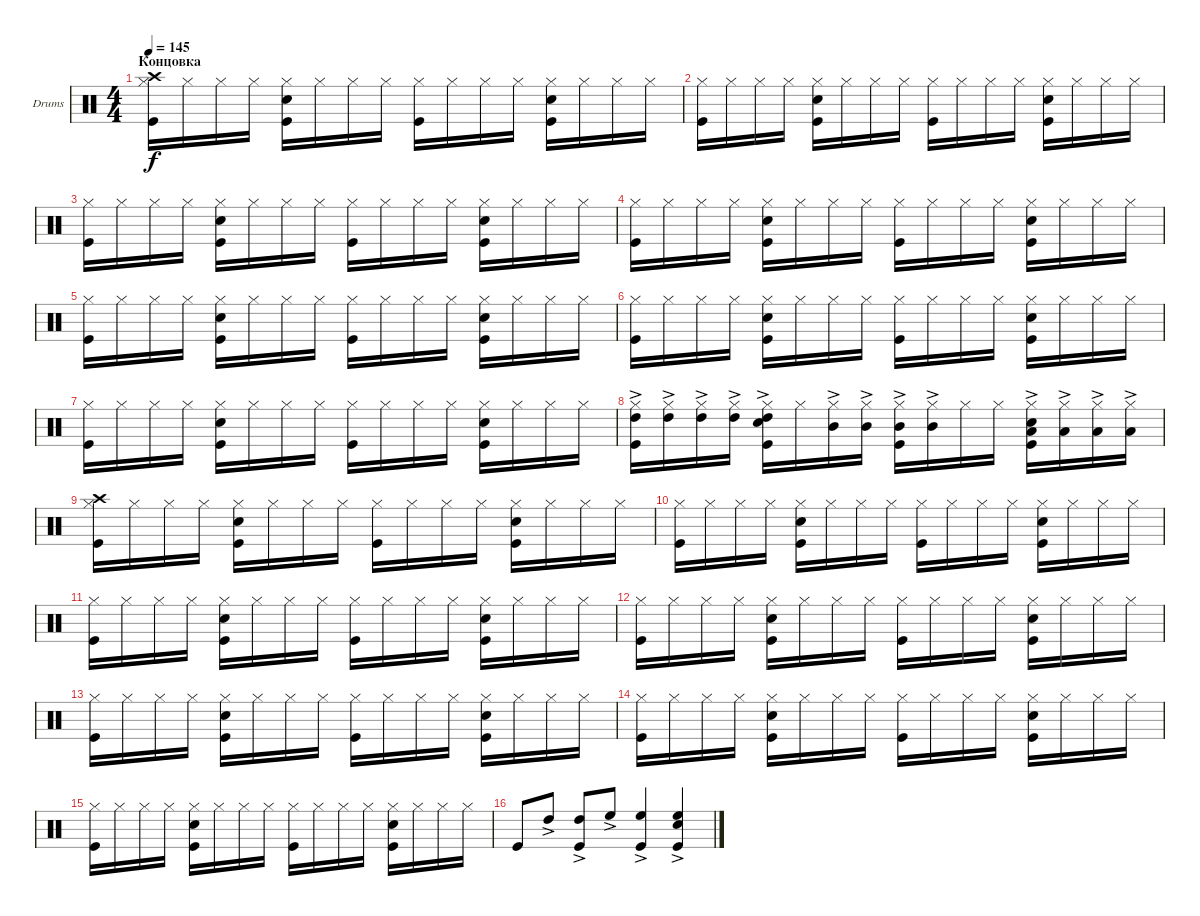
\defaultSystemsLayout 4
\bracketExtendMode groupsimilarinstruments
\firstSystemTrackNameOrientation horizontal
\otherSystemsTrackNameOrientation horizontal
\track ("Drumkit" "Drums") {instrument percussion}
\staff {score}
\articulation defaults
\ts (4 4)
\section ("" "Концовка")
\tempo 145
\clef neutral
\ks c
("Hi-Hat (closed)" "Kick (hit)" "Crash high (hit)").16{dy f} "Hi-Hat (closed)".16 "Hi-Hat (closed)".16 "Hi-Hat (closed)".16 ("Hi-Hat (closed)" "Kick (hit)" "Snare (hit) 2").16 "Hi-Hat (closed)".16 "Hi-Hat (closed)".16 "Hi-Hat (closed)".16 ("Hi-Hat (closed)" "Kick (hit)").16 "Hi-Hat (closed)".16 "Hi-Hat (closed)".16 "Hi-Hat (closed)".16 ("Hi-Hat (closed)" "Kick (hit)" "Snare (hit) 2").16 "Hi-Hat (closed)".16 "Hi-Hat (closed)".16 "Hi-Hat (closed)".16 |
("Hi-Hat (closed)" "Kick (hit)").16 "Hi-Hat (closed)".16 "Hi-Hat (closed)".16 "Hi-Hat (closed)".16 ("Hi-Hat (closed)" "Kick (hit)" "Snare (hit) 2").16 "Hi-Hat (closed)".16 "Hi-Hat (closed)".16 "Hi-Hat (closed)".16 ("Hi-Hat (closed)" "Kick (hit)").16 "Hi-Hat (closed)".16 "Hi-Hat (closed)".16 "Hi-Hat (closed)".16 ("Hi-Hat (closed)" "Kick (hit)" "Snare (hit) 2").16 "Hi-Hat (closed)".16 "Hi-Hat (closed)".16 "Hi-Hat (closed)".16 |
("Hi-Hat (closed)" "Kick (hit)").16 "Hi-Hat (closed)".16 "Hi-Hat (closed)".16 "Hi-Hat (closed)".16 ("Hi-Hat (closed)" "Kick (hit)" "Snare (hit) 2").16 "Hi-Hat (closed)".16 "Hi-Hat (closed)".16 "Hi-Hat (closed)".16 ("Hi-Hat (closed)" "Kick (hit)").16 "Hi-Hat (closed)".16 "Hi-Hat (closed)".16 "Hi-Hat (closed)".16 ("Hi-Hat (closed)" "Kick (hit)" "Snare (hit) 2").16 "Hi-Hat (closed)".16 "Hi-Hat (closed)".16 "Hi-Hat (closed)".16 |
("Hi-Hat (closed)" "Kick (hit)").16 "Hi-Hat (closed)".16 "Hi-Hat (closed)".16 "Hi-Hat (closed)".16 ("Hi-Hat (closed)" "Kick (hit)" "Snare (hit) 2").16 "Hi-Hat (closed)".16 "Hi-Hat (closed)".16 "Hi-Hat (closed)".16 ("Hi-Hat (closed)" "Kick (hit)").16 "Hi-Hat (closed)".16 "Hi-Hat (closed)".16 "Hi-Hat (closed)".16 ("Hi-Hat (closed)" "Kick (hit)" "Snare (hit) 2").16 "Hi-Hat (closed)".16 "Hi-Hat (closed)".16 "Hi-Hat (closed)".16 |
("Hi-Hat (closed)" "Kick (hit)").16 "Hi-Hat (closed)".16 "Hi-Hat (closed)".16 "Hi-Hat (closed)".16 ("Hi-Hat (closed)" "Kick (hit)" "Snare (hit) 2").16 "Hi-Hat (closed)".16 "Hi-Hat (closed)".16 "Hi-Hat (closed)".16 ("Hi-Hat (closed)" "Kick (hit)").16 "Hi-Hat (closed)".16 "Hi-Hat (closed)".16 "Hi-Hat (closed)".16 ("Hi-Hat (closed)" "Kick (hit)" "Snare (hit) 2").16 "Hi-Hat (closed)".16 "Hi-Hat (closed)".16 "Hi-Hat (closed)".16 |
("Hi-Hat (closed)" "Kick (hit)").16 "Hi-Hat (closed)".16 "Hi-Hat (closed)".16 "Hi-Hat (closed)".16 ("Hi-Hat (closed)" "Kick (hit)" "Snare (hit) 2").16 "Hi-Hat (closed)".16 "Hi-Hat (closed)".16 "Hi-Hat (closed)".16 ("Hi-Hat (closed)" "Kick (hit)").16 "Hi-Hat (closed)".16 "Hi-Hat (closed)".16 "Hi-Hat (closed)".16 ("Hi-Hat (closed)" "Kick (hit)" "Snare (hit) 2").16 "Hi-Hat (closed)".16 "Hi-Hat (closed)".16 "Hi-Hat (closed)".16 |
("Hi-Hat (closed)" "Kick (hit)").16 "Hi-Hat (closed)".16 "Hi-Hat (closed)".16 "Hi-Hat (closed)".16 ("Hi-Hat (closed)" "Kick (hit)" "Snare (hit) 2").16 "Hi-Hat (closed)".16 "Hi-Hat (closed)".16 "Hi-Hat (closed)".16 ("Hi-Hat (closed)" "Kick (hit)").16 "Hi-Hat (closed)".16 "Hi-Hat (closed)".16 "Hi-Hat (closed)".16 ("Hi-Hat (closed)" "Kick (hit)" "Snare (hit) 2").16 "Hi-Hat (closed)".16 "Hi-Hat (closed)".16 "Hi-Hat (closed)".16 |
("Hi-Hat (closed)" "Kick (hit)" "High Tom (hit)"{ac}).16 ("Hi-Hat (closed)" "High Tom (hit)"{ac}).16 ("Hi-Hat (closed)" "High Tom (hit)"{ac}).16 ("Hi-Hat (closed)" "High Tom (hit)"{ac}).16 ("Hi-Hat (closed)" "Kick (hit)" "Snare (hit) 2" "High Tom (hit)"{ac}).16 "Hi-Hat (closed)".16 ("Hi-Hat (closed)" "Mid Tom (hit)"{ac}).16 ("Hi-Hat (closed)" "Mid Tom (hit)"{ac}).16 ("Hi-Hat (closed)" "Kick (hit)" "Mid Tom (hit)"{ac}).16 ("Hi-Hat (closed)" "Mid Tom (hit)"{ac}).16 "Hi-Hat (closed)".16 "Hi-Hat (closed)".16 ("Hi-Hat (closed)" "Kick (hit)" "Snare (hit) 2" "Low Tom (hit)"{ac}).16 ("Hi-Hat (closed)" "Low Tom (hit)"{ac}).16 ("Hi-Hat (closed)" "Low Tom (hit)"{ac}).16 ("Hi-Hat (closed)" "Low Tom (hit)"{ac}).16 |
("Hi-Hat (closed)" "Kick (hit)" "Crash high (hit)").16 "Hi-Hat (closed)".16 "Hi-Hat (closed)".16 "Hi-Hat (closed)".16 ("Hi-Hat (closed)" "Kick (hit)" "Snare (hit) 2").16 "Hi-Hat (closed)".16 "Hi-Hat (closed)".16 "Hi-Hat (closed)".16 ("Hi-Hat (closed)" "Kick (hit)").16 "Hi-Hat (closed)".16 "Hi-Hat (closed)".16 "Hi-Hat (closed)".16 ("Hi-Hat (closed)" "Kick (hit)" "Snare (hit) 2").16 "Hi-Hat (closed)".16 "Hi-Hat (closed)".16 "Hi-Hat (closed)".16 |
("Hi-Hat (closed)" "Kick (hit)").16 "Hi-Hat (closed)".16 "Hi-Hat (closed)".16 "Hi-Hat (closed)".16 ("Hi-Hat (closed)" "Kick (hit)" "Snare (hit) 2").16 "Hi-Hat (closed)".16 "Hi-Hat (closed)".16 "Hi-Hat (closed)".16 ("Hi-Hat (closed)" "Kick (hit)").16 "Hi-Hat (closed)".16 "Hi-Hat (closed)".16 "Hi-Hat (closed)".16 ("Hi-Hat (closed)" "Kick (hit)" "Snare (hit) 2").16 "Hi-Hat (closed)".16 "Hi-Hat (closed)".16 "Hi-Hat (closed)".16 |
("Hi-Hat (closed)" "Kick (hit)").16 "Hi-Hat (closed)".16 "Hi-Hat (closed)".16 "Hi-Hat (closed)".16 ("Hi-Hat (closed)" "Kick (hit)" "Snare (hit) 2").16 "Hi-Hat (closed)".16 "Hi-Hat (closed)".16 "Hi-Hat (closed)".16 ("Hi-Hat (closed)" "Kick (hit)").16 "Hi-Hat (closed)".16 "Hi-Hat (closed)".16 "Hi-Hat (closed)".16 ("Hi-Hat (closed)" "Kick (hit)" "Snare (hit) 2").16 "Hi-Hat (closed)".16 "Hi-Hat (closed)".16 "Hi-Hat (closed)".16 |
("Hi-Hat (closed)" "Kick (hit)").16 "Hi-Hat (closed)".16 "Hi-Hat (closed)".16 "Hi-Hat (closed)".16 ("Hi-Hat (closed)" "Kick (hit)" "Snare (hit) 2").16 "Hi-Hat (closed)".16 "Hi-Hat (closed)".16 "Hi-Hat (closed)".16 ("Hi-Hat (closed)" "Kick (hit)").16 "Hi-Hat (closed)".16 "Hi-Hat (closed)".16 "Hi-Hat (closed)".16 ("Hi-Hat (closed)" "Kick (hit)" "Snare (hit) 2").16 "Hi-Hat (closed)".16 "Hi-Hat (closed)".16 "Hi-Hat (closed)".16 |
("Hi-Hat (closed)" "Kick (hit)").16 "Hi-Hat (closed)".16 "Hi-Hat (closed)".16 "Hi-Hat (closed)".16 ("Hi-Hat (closed)" "Kick (hit)" "Snare (hit) 2").16 "Hi-Hat (closed)".16 "Hi-Hat (closed)".16 "Hi-Hat (closed)".16 ("Hi-Hat (closed)" "Kick (hit)").16 "Hi-Hat (closed)".16 "Hi-Hat (closed)".16 "Hi-Hat (closed)".16 ("Hi-Hat (closed)" "Kick (hit)" "Snare (hit) 2").16 "Hi-Hat (closed)".16 "Hi-Hat (closed)".16 "Hi-Hat (closed)".16 |
("Hi-Hat (closed)" "Kick (hit)").16 "Hi-Hat (closed)".16 "Hi-Hat (closed)".16 "Hi-Hat (closed)".16 ("Hi-Hat (closed)" "Kick (hit)" "Snare (hit) 2").16 "Hi-Hat (closed)".16 "Hi-Hat (closed)".16 "Hi-Hat (closed)".16 ("Hi-Hat (closed)" "Kick (hit)").16 "Hi-Hat (closed)".16 "Hi-Hat (closed)".16 "Hi-Hat (closed)".16 ("Hi-Hat (closed)" "Kick (hit)" "Snare (hit) 2").16 "Hi-Hat (closed)".16 "Hi-Hat (closed)".16 "Hi-Hat (closed)".16 |
("Hi-Hat (closed)" "Kick (hit)").16 "Hi-Hat (closed)".16 "Hi-Hat (closed)".16 "Hi-Hat (closed)".16 ("Hi-Hat (closed)" "Kick (hit)" "Snare (hit) 2").16 "Hi-Hat (closed)".16 "Hi-Hat (closed)".16 "Hi-Hat (closed)".16 ("Hi-Hat (closed)" "Kick (hit)").16 "Hi-Hat (closed)".16 "Hi-Hat (closed)".16 "Hi-Hat (closed)".16 ("Hi-Hat (closed)" "Kick (hit)" "Snare (hit) 2").16 "Hi-Hat (closed)".16 "Hi-Hat (closed)".16 "Hi-Hat (closed)".16 |
"Kick (hit)".8 "High Tom (hit)"{ac}.8 ("High Tom (hit)"{ac} "Kick (hit)").8 "High Floor Tom (hit)"{ac}.8 ("High Floor Tom (hit)"{ac} "Kick (hit)").4 ("High Floor Tom (hit)"{ac} "Kick (hit)" "Snare (hit) 2").4
